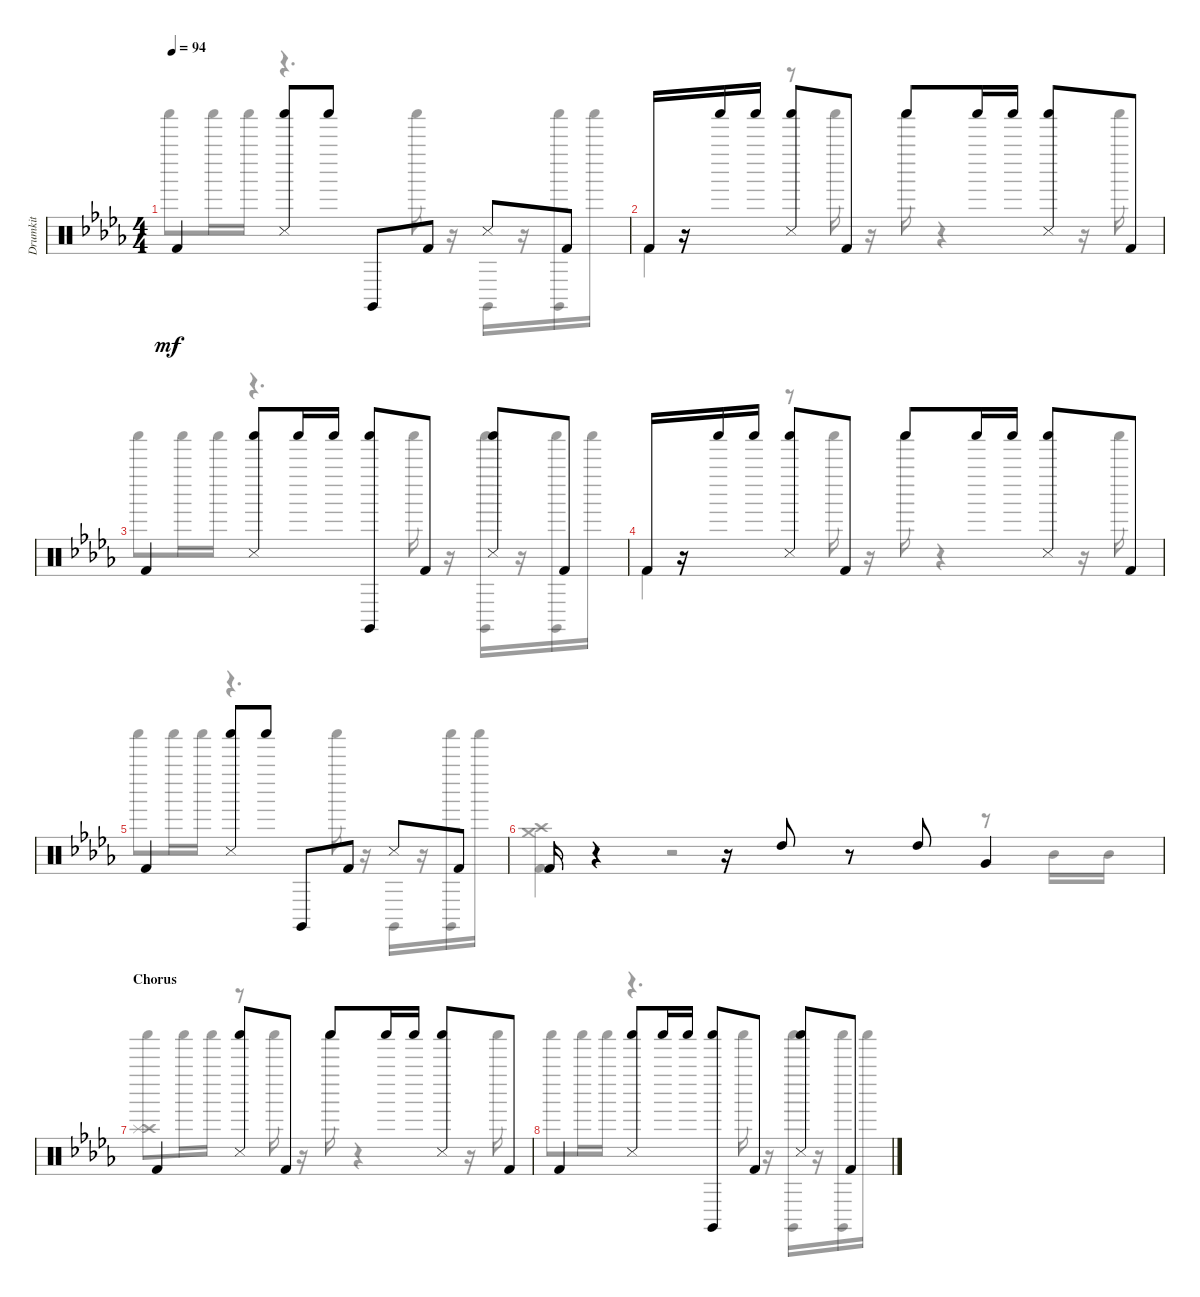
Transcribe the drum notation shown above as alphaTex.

\track ("Drumkit" "Drumkit") {instrument percussion}
\staff {score}
\articulation defaults
\voice
\ts (4 4)
\tempo 94
\clef neutral
\ks bbminor "Kick (hit) 2".4{dy mf}
("Snare (side stick) 3" "Shaker (hit)").8 "Shaker (hit)".8 "Claves (hit)".8 "Kick (hit) 2".8 "Snare (side stick) 3".8 "Kick (hit) 2".8 |
"Kick (hit) 2".16 r.16 "Shaker (hit)".16 "Shaker (hit)".16 ("Shaker (hit)" "Snare (side stick) 3").8 "Kick (hit) 2".8 "Shaker (hit)".8 "Shaker (hit)".16 "Shaker (hit)".16 ("Shaker (hit)" "Snare (side stick) 3").8 "Kick (hit) 2".8 |
"Kick (hit) 2".4 ("Shaker (hit)" "Snare (side stick) 3").8 "Shaker (hit)".16 "Shaker (hit)".16 ("Shaker (hit)" "Claves (hit)").8 "Kick (hit) 2".8 ("Snare (side stick) 3" "Shaker (hit)").8 "Kick (hit) 2".8 |
"Kick (hit) 2".16 r.16 "Shaker (hit)".16 "Shaker (hit)".16 ("Snare (side stick) 3" "Shaker (hit)").8 "Kick (hit) 2".8 "Shaker (hit)".8 "Shaker (hit)".16 "Shaker (hit)".16 ("Snare (side stick) 3" "Shaker (hit)").8 "Kick (hit) 2".8 |
"Kick (hit) 2".4 ("Shaker (hit)" "Snare (side stick) 3").8 "Shaker (hit)".8 "Claves (hit)".8 "Kick (hit) 2".8 "Snare (side stick) 3".8 "Kick (hit) 2".8 |
"Kick (hit) 2".16 r.4 r.16 "High Tom (hit)".8 r.8 "High Tom (hit)".8 "Very Low Tom (hit)".4 |
\section ("" "Chorus")
"Kick (hit) 2".4 ("Snare (side stick) 3" "Shaker (hit)").8 "Kick (hit) 2".8 "Shaker (hit)".8 "Shaker (hit)".16 "Shaker (hit)".16 ("Shaker (hit)" "Snare (side stick) 3").8 "Kick (hit) 2".8 |
"Kick (hit) 2".4 ("Shaker (hit)" "Snare (side stick) 3").8 "Shaker (hit)".16 "Shaker (hit)".16 ("Claves (hit)" "Shaker (hit)").8 "Kick (hit) 2".8 ("Shaker (hit)" "Snare (side stick) 3").8 "Kick (hit) 2".8
\voice
\clef neutral
\ottava regular
\simile none
\ks bbminor "Shaker (hit)".8{dy mf} "Shaker (hit)".16 "Shaker (hit)".16
r.4{d} "Shaker (hit)".16 r.16 "Claves (hit)".16 r.16 ("Claves (hit)" "Shaker (hit)").16 "Shaker (hit)".16 |
"Kick (hit) 2".4 r.8 "Shaker (hit)".16 r.16 "Shaker (hit)".16 r.4 r.16 "Shaker (hit)".16 |
"Shaker (hit)".8 "Shaker (hit)".16 "Shaker (hit)".16 r.4{d} "Shaker (hit)".16 r.16 ("Claves (hit)" "Shaker (hit)").16 r.16 ("Claves (hit)" "Shaker (hit)").16 "Shaker (hit)".16 |
"Kick (hit) 2".4 r.8 "Shaker (hit)".16 r.16 "Shaker (hit)".16 r.4 r.16 "Shaker (hit)".16 |
"Shaker (hit)".8 "Shaker (hit)".16 "Shaker (hit)".16 r.4{d} "Shaker (hit)".16 r.16 "Claves (hit)".16 r.16 ("Shaker (hit)" "Claves (hit)").16 "Shaker (hit)".16 |
("Kick (hit) 2" "Crash high (hit)" "Crash medium (hit)").4 r.2 r.8 "Mid Tom (hit)".16 "Mid Tom (hit)".16 |
("Crash high (hit)" "Splash (hit)" "Shaker (hit)").8 "Shaker (hit)".16 "Shaker (hit)".16 r.8 "Shaker (hit)".16 r.16 "Shaker (hit)".16 r.4 r.16 "Shaker (hit)".16 |
"Shaker (hit)".8 "Shaker (hit)".16 "Shaker (hit)".16 r.4{d} "Shaker (hit)".16 r.16 ("Claves (hit)" "Shaker (hit)").16 r.16 ("Claves (hit)" "Shaker (hit)").16 "Shaker (hit)".16
